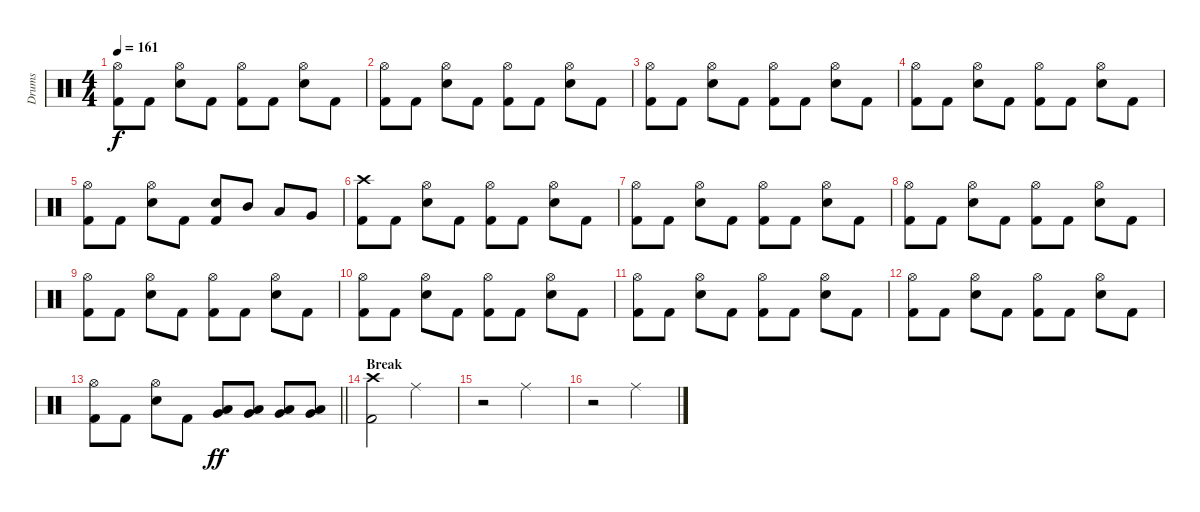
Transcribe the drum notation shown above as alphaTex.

\track ("Drums" "Drums") {instrument percussion}
\staff {score}
\articulation defaults
\ts (4 4)
\tempo 161
\clef neutral
\ks c
("Hi-Hat (open)" "Kick (hit) 2").8{dy f} "Kick (hit) 2".8 ("Hi-Hat (open)" "Snare (hit) 2").8 "Kick (hit) 2".8 ("Hi-Hat (open)" "Kick (hit) 2").8 "Kick (hit) 2".8 ("Hi-Hat (open)" "Snare (hit) 2").8 "Kick (hit) 2".8 |
("Hi-Hat (open)" "Kick (hit) 2").8 "Kick (hit) 2".8 ("Hi-Hat (open)" "Snare (hit) 2").8 "Kick (hit) 2".8 ("Hi-Hat (open)" "Kick (hit) 2").8 "Kick (hit) 2".8 ("Hi-Hat (open)" "Snare (hit) 2").8 "Kick (hit) 2".8 |
("Hi-Hat (open)" "Kick (hit) 2").8 "Kick (hit) 2".8 ("Hi-Hat (open)" "Snare (hit) 2").8 "Kick (hit) 2".8 ("Hi-Hat (open)" "Kick (hit) 2").8 "Kick (hit) 2".8 ("Hi-Hat (open)" "Snare (hit) 2").8 "Kick (hit) 2".8 |
("Hi-Hat (open)" "Kick (hit) 2").8 "Kick (hit) 2".8 ("Hi-Hat (open)" "Snare (hit) 2").8 "Kick (hit) 2".8 ("Hi-Hat (open)" "Kick (hit) 2").8 "Kick (hit) 2".8 ("Hi-Hat (open)" "Snare (hit) 2").8 "Kick (hit) 2".8 |
("Hi-Hat (open)" "Kick (hit) 2").8 "Kick (hit) 2".8 ("Hi-Hat (open)" "Snare (hit) 2").8 "Kick (hit) 2".8 ("Snare (hit) 2" "Kick (hit) 2").8 "Mid Tom (hit)".8 "Low Tom (hit)".8 "Very Low Tom (hit)".8 |
("Crash high (hit)" "Kick (hit) 2").8 "Kick (hit) 2".8 ("Hi-Hat (open)" "Snare (hit) 2").8 "Kick (hit) 2".8 ("Hi-Hat (open)" "Kick (hit) 2").8 "Kick (hit) 2".8 ("Hi-Hat (open)" "Snare (hit) 2").8 "Kick (hit) 2".8 |
("Hi-Hat (open)" "Kick (hit) 2").8 "Kick (hit) 2".8 ("Hi-Hat (open)" "Snare (hit) 2").8 "Kick (hit) 2".8 ("Hi-Hat (open)" "Kick (hit) 2").8 "Kick (hit) 2".8 ("Hi-Hat (open)" "Snare (hit) 2").8 "Kick (hit) 2".8 |
("Hi-Hat (open)" "Kick (hit) 2").8 "Kick (hit) 2".8 ("Hi-Hat (open)" "Snare (hit) 2").8 "Kick (hit) 2".8 ("Hi-Hat (open)" "Kick (hit) 2").8 "Kick (hit) 2".8 ("Hi-Hat (open)" "Snare (hit) 2").8 "Kick (hit) 2".8 |
("Hi-Hat (open)" "Kick (hit) 2").8 "Kick (hit) 2".8 ("Hi-Hat (open)" "Snare (hit) 2").8 "Kick (hit) 2".8 ("Hi-Hat (open)" "Kick (hit) 2").8 "Kick (hit) 2".8 ("Hi-Hat (open)" "Snare (hit) 2").8 "Kick (hit) 2".8 |
("Hi-Hat (open)" "Kick (hit) 2").8 "Kick (hit) 2".8 ("Hi-Hat (open)" "Snare (hit) 2").8 "Kick (hit) 2".8 ("Hi-Hat (open)" "Kick (hit) 2").8 "Kick (hit) 2".8 ("Hi-Hat (open)" "Snare (hit) 2").8 "Kick (hit) 2".8 |
("Hi-Hat (open)" "Kick (hit) 2").8 "Kick (hit) 2".8 ("Hi-Hat (open)" "Snare (hit) 2").8 "Kick (hit) 2".8 ("Hi-Hat (open)" "Kick (hit) 2").8 "Kick (hit) 2".8 ("Hi-Hat (open)" "Snare (hit) 2").8 "Kick (hit) 2".8 |
("Hi-Hat (open)" "Kick (hit) 2").8 "Kick (hit) 2".8 ("Hi-Hat (open)" "Snare (hit) 2").8 "Kick (hit) 2".8 ("Hi-Hat (open)" "Kick (hit) 2").8 "Kick (hit) 2".8 ("Hi-Hat (open)" "Snare (hit) 2").8 "Kick (hit) 2".8 |
\barLineRight lightlight
("Hi-Hat (open)" "Kick (hit) 2").8 "Kick (hit) 2".8 ("Hi-Hat (open)" "Snare (hit) 2").8 "Kick (hit) 2".8 ("Low Tom (hit)" "Very Low Tom (hit)").8{dy ff} ("Low Tom (hit)" "Very Low Tom (hit)").8 ("Very Low Tom (hit)" "Low Floor Tom (hit)").8 ("Very Low Tom (hit)" "Low Floor Tom (hit)").8 |
\section ("" "Break")
("Crash high (hit)" "Kick (hit) 2").2 "Ride (middle)".2 |
r.2 "Ride (middle)".2 |
r.2 "Ride (middle)".2
